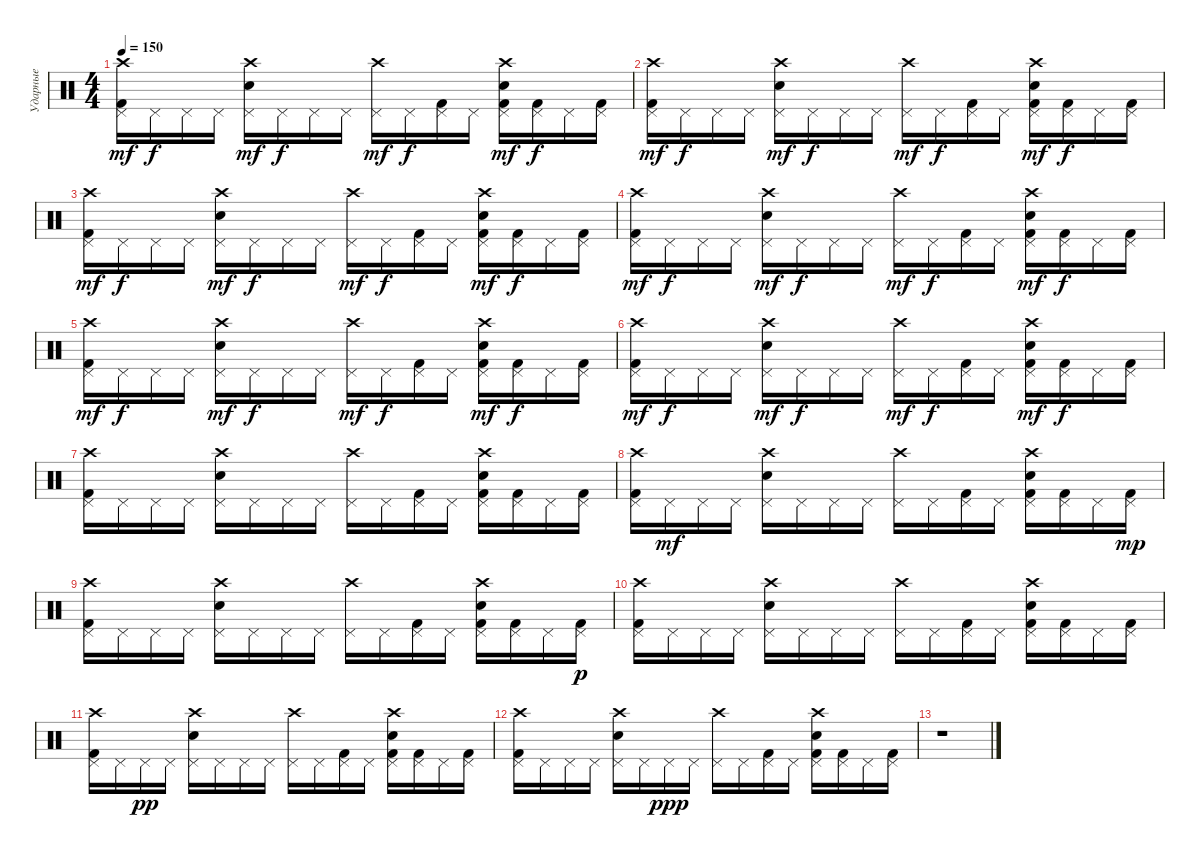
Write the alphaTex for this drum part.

\track ("Ударные" "Ударные") {instrument percussion}
\staff {score}
\articulation defaults
\ts (4 4)
\tempo 150
\clef neutral
\ks c
("Crash high (hit)" "Pedal Hi-Hat (hit)" "Kick (hit) 2").16{dy mf} "Pedal Hi-Hat (hit)".16{dy f} "Pedal Hi-Hat (hit)".16 "Pedal Hi-Hat (hit)".16 ("Crash high (hit)" "Pedal Hi-Hat (hit)" "Electric Snare (hit)").16{dy mf} "Pedal Hi-Hat (hit)".16{dy f} "Pedal Hi-Hat (hit)".16 "Pedal Hi-Hat (hit)".16 ("Crash high (hit)" "Pedal Hi-Hat (hit)").16{dy mf} "Pedal Hi-Hat (hit)".16{dy f} ("Pedal Hi-Hat (hit)" "Kick (hit) 2").16 "Pedal Hi-Hat (hit)".16 ("Crash high (hit)" "Pedal Hi-Hat (hit)" "Electric Snare (hit)" "Kick (hit) 2").16{dy mf} ("Pedal Hi-Hat (hit)" "Kick (hit) 2").16{dy f} "Pedal Hi-Hat (hit)".16 ("Pedal Hi-Hat (hit)" "Kick (hit) 2").16 |
("Pedal Hi-Hat (hit)" "Kick (hit) 2" "Crash high (hit)").16{dy mf} "Pedal Hi-Hat (hit)".16{dy f} "Pedal Hi-Hat (hit)".16 "Pedal Hi-Hat (hit)".16 ("Pedal Hi-Hat (hit)" "Electric Snare (hit)" "Crash high (hit)").16{dy mf} "Pedal Hi-Hat (hit)".16{dy f} "Pedal Hi-Hat (hit)".16 "Pedal Hi-Hat (hit)".16 ("Pedal Hi-Hat (hit)" "Crash high (hit)").16{dy mf} "Pedal Hi-Hat (hit)".16{dy f} ("Pedal Hi-Hat (hit)" "Kick (hit) 2").16 "Pedal Hi-Hat (hit)".16 ("Pedal Hi-Hat (hit)" "Electric Snare (hit)" "Kick (hit) 2" "Crash high (hit)").16{dy mf} ("Pedal Hi-Hat (hit)" "Kick (hit) 2").16{dy f} "Pedal Hi-Hat (hit)".16 ("Pedal Hi-Hat (hit)" "Kick (hit) 2").16 |
("Crash high (hit)" "Pedal Hi-Hat (hit)" "Kick (hit) 2").16{dy mf} "Pedal Hi-Hat (hit)".16{dy f} "Pedal Hi-Hat (hit)".16 "Pedal Hi-Hat (hit)".16 ("Crash high (hit)" "Pedal Hi-Hat (hit)" "Electric Snare (hit)").16{dy mf} "Pedal Hi-Hat (hit)".16{dy f} "Pedal Hi-Hat (hit)".16 "Pedal Hi-Hat (hit)".16 ("Crash high (hit)" "Pedal Hi-Hat (hit)").16{dy mf} "Pedal Hi-Hat (hit)".16{dy f} ("Pedal Hi-Hat (hit)" "Kick (hit) 2").16 "Pedal Hi-Hat (hit)".16 ("Crash high (hit)" "Pedal Hi-Hat (hit)" "Electric Snare (hit)" "Kick (hit) 2").16{dy mf} ("Pedal Hi-Hat (hit)" "Kick (hit) 2").16{dy f} "Pedal Hi-Hat (hit)".16 ("Pedal Hi-Hat (hit)" "Kick (hit) 2").16 |
("Pedal Hi-Hat (hit)" "Kick (hit) 2" "Crash high (hit)").16{dy mf} "Pedal Hi-Hat (hit)".16{dy f} "Pedal Hi-Hat (hit)".16 "Pedal Hi-Hat (hit)".16 ("Pedal Hi-Hat (hit)" "Electric Snare (hit)" "Crash high (hit)").16{dy mf} "Pedal Hi-Hat (hit)".16{dy f} "Pedal Hi-Hat (hit)".16 "Pedal Hi-Hat (hit)".16 ("Pedal Hi-Hat (hit)" "Crash high (hit)").16{dy mf} "Pedal Hi-Hat (hit)".16{dy f} ("Pedal Hi-Hat (hit)" "Kick (hit) 2").16 "Pedal Hi-Hat (hit)".16 ("Pedal Hi-Hat (hit)" "Electric Snare (hit)" "Kick (hit) 2" "Crash high (hit)").16{dy mf} ("Pedal Hi-Hat (hit)" "Kick (hit) 2").16{dy f} "Pedal Hi-Hat (hit)".16 ("Pedal Hi-Hat (hit)" "Kick (hit) 2").16 |
("Pedal Hi-Hat (hit)" "Kick (hit) 2" "Crash high (hit)").16{dy mf} "Pedal Hi-Hat (hit)".16{dy f} "Pedal Hi-Hat (hit)".16 "Pedal Hi-Hat (hit)".16 ("Pedal Hi-Hat (hit)" "Electric Snare (hit)" "Crash high (hit)").16{dy mf} "Pedal Hi-Hat (hit)".16{dy f} "Pedal Hi-Hat (hit)".16 "Pedal Hi-Hat (hit)".16 ("Pedal Hi-Hat (hit)" "Crash high (hit)").16{dy mf} "Pedal Hi-Hat (hit)".16{dy f} ("Pedal Hi-Hat (hit)" "Kick (hit) 2").16 "Pedal Hi-Hat (hit)".16 ("Pedal Hi-Hat (hit)" "Electric Snare (hit)" "Kick (hit) 2" "Crash high (hit)").16{dy mf} ("Pedal Hi-Hat (hit)" "Kick (hit) 2").16{dy f} "Pedal Hi-Hat (hit)".16 ("Pedal Hi-Hat (hit)" "Kick (hit) 2").16 |
("Crash high (hit)" "Pedal Hi-Hat (hit)" "Kick (hit) 2").16{dy mf} "Pedal Hi-Hat (hit)".16{dy f} "Pedal Hi-Hat (hit)".16 "Pedal Hi-Hat (hit)".16 ("Crash high (hit)" "Pedal Hi-Hat (hit)" "Electric Snare (hit)").16{dy mf} "Pedal Hi-Hat (hit)".16{dy f} "Pedal Hi-Hat (hit)".16 "Pedal Hi-Hat (hit)".16 ("Crash high (hit)" "Pedal Hi-Hat (hit)").16{dy mf} "Pedal Hi-Hat (hit)".16{dy f} ("Pedal Hi-Hat (hit)" "Kick (hit) 2").16 "Pedal Hi-Hat (hit)".16 ("Crash high (hit)" "Pedal Hi-Hat (hit)" "Electric Snare (hit)" "Kick (hit) 2").16{dy mf} ("Pedal Hi-Hat (hit)" "Kick (hit) 2").16{dy f} "Pedal Hi-Hat (hit)".16 ("Pedal Hi-Hat (hit)" "Kick (hit) 2").16 |
("Crash high (hit)" "Pedal Hi-Hat (hit)" "Kick (hit) 2").16 "Pedal Hi-Hat (hit)".16 "Pedal Hi-Hat (hit)".16 "Pedal Hi-Hat (hit)".16 ("Crash high (hit)" "Pedal Hi-Hat (hit)" "Electric Snare (hit)").16 "Pedal Hi-Hat (hit)".16 "Pedal Hi-Hat (hit)".16 "Pedal Hi-Hat (hit)".16 ("Crash high (hit)" "Pedal Hi-Hat (hit)").16 "Pedal Hi-Hat (hit)".16 ("Pedal Hi-Hat (hit)" "Kick (hit) 2").16 "Pedal Hi-Hat (hit)".16 ("Crash high (hit)" "Pedal Hi-Hat (hit)" "Electric Snare (hit)" "Kick (hit) 2").16 ("Pedal Hi-Hat (hit)" "Kick (hit) 2").16 "Pedal Hi-Hat (hit)".16 ("Pedal Hi-Hat (hit)" "Kick (hit) 2").16 |
("Crash high (hit)" "Pedal Hi-Hat (hit)" "Kick (hit) 2").16 "Pedal Hi-Hat (hit)".16{dy mf} "Pedal Hi-Hat (hit)".16 "Pedal Hi-Hat (hit)".16 ("Crash high (hit)" "Pedal Hi-Hat (hit)" "Electric Snare (hit)").16 "Pedal Hi-Hat (hit)".16 "Pedal Hi-Hat (hit)".16 "Pedal Hi-Hat (hit)".16 ("Crash high (hit)" "Pedal Hi-Hat (hit)").16 "Pedal Hi-Hat (hit)".16 ("Pedal Hi-Hat (hit)" "Kick (hit) 2").16 "Pedal Hi-Hat (hit)".16 ("Crash high (hit)" "Pedal Hi-Hat (hit)" "Electric Snare (hit)" "Kick (hit) 2").16 ("Pedal Hi-Hat (hit)" "Kick (hit) 2").16 "Pedal Hi-Hat (hit)".16 ("Pedal Hi-Hat (hit)" "Kick (hit) 2").16{dy mp} |
("Crash high (hit)" "Pedal Hi-Hat (hit)" "Kick (hit) 2").16 "Pedal Hi-Hat (hit)".16 "Pedal Hi-Hat (hit)".16 "Pedal Hi-Hat (hit)".16 ("Crash high (hit)" "Pedal Hi-Hat (hit)" "Electric Snare (hit)").16 "Pedal Hi-Hat (hit)".16 "Pedal Hi-Hat (hit)".16 "Pedal Hi-Hat (hit)".16 ("Crash high (hit)" "Pedal Hi-Hat (hit)").16 "Pedal Hi-Hat (hit)".16 ("Pedal Hi-Hat (hit)" "Kick (hit) 2").16 "Pedal Hi-Hat (hit)".16 ("Crash high (hit)" "Pedal Hi-Hat (hit)" "Electric Snare (hit)" "Kick (hit) 2").16 ("Pedal Hi-Hat (hit)" "Kick (hit) 2").16 "Pedal Hi-Hat (hit)".16 ("Pedal Hi-Hat (hit)" "Kick (hit) 2").16{dy p} |
("Crash high (hit)" "Pedal Hi-Hat (hit)" "Kick (hit) 2").16 "Pedal Hi-Hat (hit)".16 "Pedal Hi-Hat (hit)".16 "Pedal Hi-Hat (hit)".16 ("Crash high (hit)" "Pedal Hi-Hat (hit)" "Electric Snare (hit)").16 "Pedal Hi-Hat (hit)".16 "Pedal Hi-Hat (hit)".16 "Pedal Hi-Hat (hit)".16 ("Crash high (hit)" "Pedal Hi-Hat (hit)").16 "Pedal Hi-Hat (hit)".16 ("Pedal Hi-Hat (hit)" "Kick (hit) 2").16 "Pedal Hi-Hat (hit)".16 ("Crash high (hit)" "Pedal Hi-Hat (hit)" "Electric Snare (hit)" "Kick (hit) 2").16 ("Pedal Hi-Hat (hit)" "Kick (hit) 2").16 "Pedal Hi-Hat (hit)".16 ("Pedal Hi-Hat (hit)" "Kick (hit) 2").16 |
("Pedal Hi-Hat (hit)" "Kick (hit) 2" "Crash high (hit)").16 "Pedal Hi-Hat (hit)".16 "Pedal Hi-Hat (hit)".16{dy pp} "Pedal Hi-Hat (hit)".16 ("Pedal Hi-Hat (hit)" "Electric Snare (hit)" "Crash high (hit)").16 "Pedal Hi-Hat (hit)".16 "Pedal Hi-Hat (hit)".16 "Pedal Hi-Hat (hit)".16 ("Pedal Hi-Hat (hit)" "Crash high (hit)").16 "Pedal Hi-Hat (hit)".16 ("Pedal Hi-Hat (hit)" "Kick (hit) 2").16 "Pedal Hi-Hat (hit)".16 ("Pedal Hi-Hat (hit)" "Electric Snare (hit)" "Kick (hit) 2" "Crash high (hit)").16 ("Pedal Hi-Hat (hit)" "Kick (hit) 2").16 "Pedal Hi-Hat (hit)".16 ("Pedal Hi-Hat (hit)" "Kick (hit) 2").16 |
("Pedal Hi-Hat (hit)" "Kick (hit) 2" "Crash high (hit)").16 "Pedal Hi-Hat (hit)".16 "Pedal Hi-Hat (hit)".16 "Pedal Hi-Hat (hit)".16 ("Pedal Hi-Hat (hit)" "Electric Snare (hit)" "Crash high (hit)").16 "Pedal Hi-Hat (hit)".16 "Pedal Hi-Hat (hit)".16{dy ppp} "Pedal Hi-Hat (hit)".16 ("Pedal Hi-Hat (hit)" "Crash high (hit)").16 "Pedal Hi-Hat (hit)".16 ("Pedal Hi-Hat (hit)" "Kick (hit) 2").16 "Pedal Hi-Hat (hit)".16 ("Pedal Hi-Hat (hit)" "Electric Snare (hit)" "Kick (hit) 2" "Crash high (hit)").16 ("Pedal Hi-Hat (hit)" "Kick (hit) 2").16 "Pedal Hi-Hat (hit)".16 ("Pedal Hi-Hat (hit)" "Kick (hit) 2").16 |
r.1
